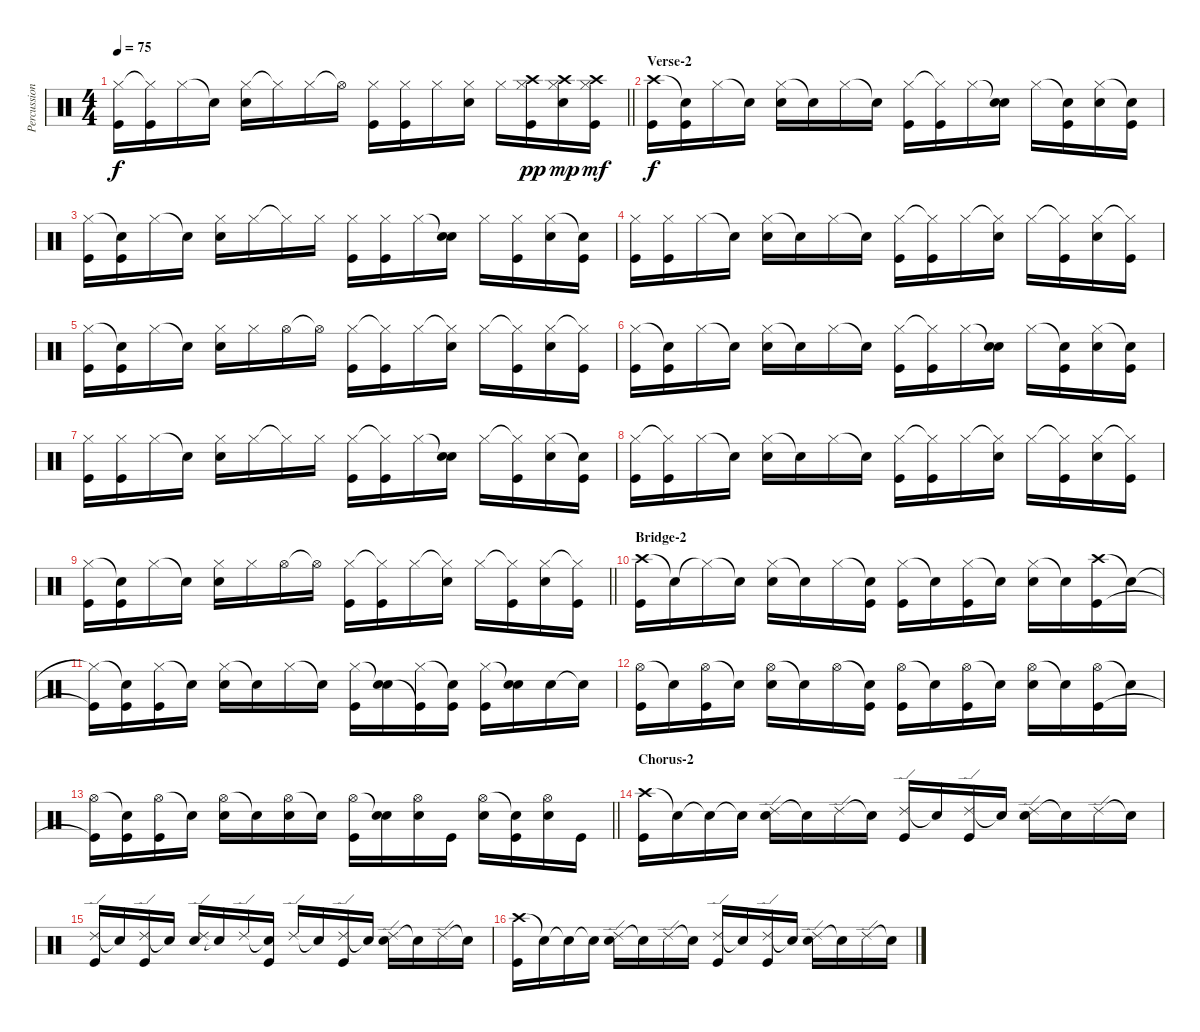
\track ("Percussion" "Percussion") {instrument percussion}
\staff {score}
\articulation defaults
\ts (4 4)
\tempo 75
\clef neutral
\barLineRight lightlight
\ks c
("Hi-Hat (closed)" "Kick (hit)").16{dy f} ("Hi-Hat (closed)"{t} "Kick (hit)").16 "Hi-Hat (closed)".16 "Snare (hit)"{t}.16 ("Hi-Hat (closed)" "Electric Snare (hit)").16 "Hi-Hat (closed)"{t}.16 "Hi-Hat (closed)".16 "Hi-Hat (open)"{t}.16 ("Hi-Hat (closed)" "Kick (hit)").16 ("Hi-Hat (closed)" "Kick (hit)").16 "Hi-Hat (closed)".16 ("Hi-Hat (closed)" "Electric Snare (hit)").16 "Hi-Hat (closed)".16 ("Crash high (hit)" "Hi-Hat (closed)" "Kick (hit)").16{dy pp} ("Crash high (hit)" "Hi-Hat (closed)" "Electric Snare (hit)").16{dy mp} ("Crash high (hit)" "Hi-Hat (closed)" "Kick (hit)").16{dy mf} |
\section ("" "Verse-2")
("Crash high (hit)" "Kick (hit)").16{dy f} ("Snare (hit)"{t} "Kick (hit)").16 "Hi-Hat (closed)".16 "Snare (hit)"{t}.16 ("Hi-Hat (closed)" "Electric Snare (hit)").16 "Snare (hit)"{t}.16 "Hi-Hat (closed)".16 "Snare (hit)"{t}.16 ("Hi-Hat (closed)" "Kick (hit)").16 ("Hi-Hat (closed)"{t} "Kick (hit)").16 "Hi-Hat (closed)".16 ("Snare (hit)"{t} "Electric Snare (hit)").16 "Hi-Hat (closed)".16 ("Snare (hit)"{t} "Kick (hit)").16 ("Hi-Hat (closed)" "Electric Snare (hit)").16 ("Snare (hit)"{t} "Kick (hit)").16 |
("Hi-Hat (closed)" "Kick (hit)").16 ("Snare (hit)"{t} "Kick (hit)").16 "Hi-Hat (closed)".16 "Snare (hit)"{t}.16 ("Hi-Hat (closed)" "Electric Snare (hit)").16 "Hi-Hat (closed)".16 "Hi-Hat (closed)"{t}.16 "Hi-Hat (closed)".16 ("Hi-Hat (closed)" "Kick (hit)").16 ("Hi-Hat (closed)" "Kick (hit)").16 "Hi-Hat (closed)".16 ("Snare (hit)"{t} "Electric Snare (hit)").16 "Hi-Hat (closed)".16 ("Hi-Hat (closed)" "Kick (hit)").16 ("Hi-Hat (closed)" "Electric Snare (hit)").16 ("Snare (hit)"{t} "Kick (hit)").16 |
("Hi-Hat (closed)" "Kick (hit)").16 ("Hi-Hat (closed)" "Kick (hit)").16 "Hi-Hat (closed)".16 "Snare (hit)"{t}.16 ("Hi-Hat (closed)" "Electric Snare (hit)").16 "Snare (hit)"{t}.16 "Hi-Hat (closed)".16 "Snare (hit)"{t}.16 ("Hi-Hat (closed)" "Kick (hit)").16 ("Hi-Hat (closed)"{t} "Kick (hit)").16 "Hi-Hat (closed)".16 ("Hi-Hat (closed)"{t} "Electric Snare (hit)").16 "Hi-Hat (closed)".16 ("Hi-Hat (closed)"{t} "Kick (hit)").16 ("Hi-Hat (closed)" "Electric Snare (hit)").16 ("Hi-Hat (closed)"{t} "Kick (hit)").16 |
("Hi-Hat (closed)" "Kick (hit)").16 ("Snare (hit)"{t} "Kick (hit)").16 "Hi-Hat (closed)".16 "Snare (hit)"{t}.16 ("Hi-Hat (closed)" "Electric Snare (hit)").16 "Hi-Hat (closed)".16 "Hi-Hat (open)".16 "Hi-Hat (open)"{t}.16 ("Hi-Hat (closed)" "Kick (hit)").16 ("Hi-Hat (closed)"{t} "Kick (hit)").16 "Hi-Hat (closed)".16 ("Hi-Hat (closed)"{t} "Electric Snare (hit)").16 "Hi-Hat (closed)".16 ("Hi-Hat (closed)"{t} "Kick (hit)").16 ("Hi-Hat (closed)" "Electric Snare (hit)").16 ("Hi-Hat (closed)"{t} "Kick (hit)").16 |
("Hi-Hat (closed)" "Kick (hit)").16 ("Snare (hit)"{t} "Kick (hit)").16 "Hi-Hat (closed)".16 "Snare (hit)"{t}.16 ("Hi-Hat (closed)" "Electric Snare (hit)").16 "Snare (hit)"{t}.16 "Hi-Hat (closed)".16 "Snare (hit)"{t}.16 ("Hi-Hat (closed)" "Kick (hit)").16 ("Hi-Hat (closed)"{t} "Kick (hit)").16 "Hi-Hat (closed)".16 ("Snare (hit)"{t} "Electric Snare (hit)").16 "Hi-Hat (closed)".16 ("Snare (hit)"{t} "Kick (hit)").16 ("Hi-Hat (closed)" "Electric Snare (hit)").16 ("Snare (hit)"{t} "Kick (hit)").16 |
("Hi-Hat (closed)" "Kick (hit)").16 ("Hi-Hat (closed)" "Kick (hit)").16 "Hi-Hat (closed)".16 "Snare (hit)"{t}.16 ("Hi-Hat (closed)" "Electric Snare (hit)").16 "Hi-Hat (closed)".16 "Hi-Hat (closed)"{t}.16 "Hi-Hat (closed)".16 ("Hi-Hat (closed)" "Kick (hit)").16 ("Hi-Hat (closed)"{t} "Kick (hit)").16 "Hi-Hat (closed)".16 ("Snare (hit)"{t} "Electric Snare (hit)").16 "Hi-Hat (closed)".16 ("Hi-Hat (closed)"{t} "Kick (hit)").16 ("Hi-Hat (closed)" "Electric Snare (hit)").16 ("Snare (hit)"{t} "Kick (hit)").16 |
("Hi-Hat (closed)" "Kick (hit)").16 ("Hi-Hat (closed)"{t} "Kick (hit)").16 "Hi-Hat (closed)".16 "Snare (hit)"{t}.16 ("Hi-Hat (closed)" "Electric Snare (hit)").16 "Snare (hit)"{t}.16 "Hi-Hat (closed)".16 "Snare (hit)"{t}.16 ("Hi-Hat (closed)" "Kick (hit)").16 ("Hi-Hat (closed)"{t} "Kick (hit)").16 "Hi-Hat (closed)".16 ("Hi-Hat (closed)"{t} "Electric Snare (hit)").16 "Hi-Hat (closed)".16 ("Hi-Hat (closed)"{t} "Kick (hit)").16 ("Hi-Hat (closed)" "Electric Snare (hit)").16 ("Hi-Hat (closed)"{t} "Kick (hit)").16 |
\barLineRight lightlight
("Hi-Hat (closed)" "Kick (hit)").16 ("Snare (hit)"{t} "Kick (hit)").16 "Hi-Hat (closed)".16 "Snare (hit)"{t}.16 ("Hi-Hat (closed)" "Electric Snare (hit)").16 "Hi-Hat (closed)".16 "Hi-Hat (open)".16 "Hi-Hat (open)"{t}.16 ("Hi-Hat (closed)" "Kick (hit)").16 ("Hi-Hat (closed)"{t} "Kick (hit)").16 "Hi-Hat (closed)".16 ("Hi-Hat (closed)"{t} "Electric Snare (hit)").16 "Hi-Hat (closed)".16 ("Hi-Hat (closed)"{t} "Kick (hit)").16 ("Hi-Hat (closed)" "Electric Snare (hit)").16 ("Hi-Hat (closed)"{t} "Kick (hit)").16 |
\section ("" "Bridge-2")
("Crash high (hit)" "Kick (hit)").16 "Snare (hit)"{t}.16 "Hi-Hat (closed)"{t}.16 "Snare (hit)"{t}.16 ("Hi-Hat (closed)" "Electric Snare (hit)").16 "Snare (hit)"{t}.16 "Hi-Hat (closed)".16 ("Snare (hit)"{t} "Kick (hit)").16 ("Hi-Hat (closed)" "Kick (hit)").16 "Snare (hit)"{t}.16 ("Hi-Hat (closed)" "Kick (hit)").16 "Snare (hit)"{t}.16 ("Hi-Hat (closed)" "Electric Snare (hit)").16 "Snare (hit)"{t}.16 ("Crash high (hit)" "Kick (hit)").16 "Snare (hit)"{t}.16 |
("Hi-Hat (closed)"{t} "Kick (hit)"{t}).16 ("Snare (hit)"{t} "Kick (hit)").16 ("Hi-Hat (closed)" "Kick (hit)").16 "Snare (hit)"{t}.16 ("Hi-Hat (closed)" "Electric Snare (hit)").16 "Snare (hit)"{t}.16 "Hi-Hat (closed)".16 "Snare (hit)"{t}.16 ("Hi-Hat (closed)" "Kick (hit)").16 ("Snare (hit)"{t} "Electric Snare (hit)").16 ("Hi-Hat (closed)" "Kick (hit)"{t}).16 ("Snare (hit)"{t} "Kick (hit)").16 ("Hi-Hat (closed)" "Kick (hit)").16 ("Snare (hit)"{t} "Electric Snare (hit)").16 "Electric Snare (hit)".16 "Electric Snare (hit)"{t}.16 |
("Hi-Hat (open)" "Kick (hit)").16 "Snare (hit)"{t}.16 ("Hi-Hat (open)" "Kick (hit)").16 "Snare (hit)"{t}.16 ("Hi-Hat (open)" "Electric Snare (hit)").16 "Snare (hit)"{t}.16 "Hi-Hat (open)".16 ("Snare (hit)"{t} "Kick (hit)").16 ("Hi-Hat (open)" "Kick (hit)").16 "Snare (hit)"{t}.16 ("Hi-Hat (open)" "Kick (hit)").16 "Snare (hit)"{t}.16 ("Hi-Hat (open)" "Electric Snare (hit)").16 "Snare (hit)"{t}.16 ("Hi-Hat (open)" "Kick (hit)").16 "Snare (hit)"{t}.16 |
\barLineRight lightlight
("Hi-Hat (open)" "Kick (hit)"{t}).16 ("Snare (hit)"{t} "Kick (hit)").16 ("Hi-Hat (open)" "Kick (hit)").16 "Snare (hit)"{t}.16 ("Hi-Hat (open)" "Electric Snare (hit)").16 "Snare (hit)"{t}.16 ("Hi-Hat (open)" "Electric Snare (hit)").16 "Snare (hit)"{t}.16 ("Hi-Hat (open)" "Kick (hit)").16 ("Snare (hit)"{t} "Electric Snare (hit)").16 ("Hi-Hat (open)" "Electric Snare (hit)").16 "Kick (hit)".16 ("Hi-Hat (open)" "Electric Snare (hit)").16 ("Snare (hit)"{t} "Kick (hit)").16 ("Hi-Hat (open)" "Electric Snare (hit)").16 "Kick (hit)".16 |
\section ("" "Chorus-2")
("Crash high (hit)" "Kick (hit)").16 "Snare (hit)"{t}.16 "Snare (hit)"{t}.16 "Snare (hit)"{t}.16 ("Ride (edge) 2" "Electric Snare (hit)").16 "Snare (hit)"{t}.16 "Ride (edge) 2".16 "Snare (hit)"{t}.16 ("Ride (edge) 2" "Kick (hit)").16 "Snare (hit)"{t}.16 ("Ride (edge) 2" "Kick (hit)").16 "Snare (hit)"{t}.16 ("Ride (edge) 2" "Electric Snare (hit)").16 "Snare (hit)"{t}.16 "Ride (edge) 2".16 "Snare (hit)"{t}.16 |
("Ride (edge) 2" "Kick (hit)").16 "Snare (hit)"{t}.16 ("Ride (edge) 2" "Kick (hit)").16 "Snare (hit)"{t}.16 ("Ride (edge) 2" "Electric Snare (hit)").16 "Snare (hit)"{t}.16 "Ride (edge) 2".16 ("Snare (hit)"{t} "Kick (hit)").16 "Ride (edge) 2".16 "Snare (hit)"{t}.16 ("Ride (edge) 2" "Kick (hit)").16 "Snare (hit)"{t}.16 ("Ride (edge) 2" "Electric Snare (hit)").16 "Snare (hit)"{t}.16 "Ride (edge) 2".16 "Snare (hit)"{t}.16 |
("Crash high (hit)" "Kick (hit)").16 "Snare (hit)"{t}.16 "Snare (hit)"{t}.16 "Snare (hit)"{t}.16 ("Ride (edge) 2" "Electric Snare (hit)").16 "Snare (hit)"{t}.16 "Ride (edge) 2".16 "Snare (hit)"{t}.16 ("Ride (edge) 2" "Kick (hit)").16 "Snare (hit)"{t}.16 ("Ride (edge) 2" "Kick (hit)").16 "Snare (hit)"{t}.16 ("Ride (edge) 2" "Electric Snare (hit)").16 "Snare (hit)"{t}.16 "Ride (edge) 2".16 "Snare (hit)"{t}.16
